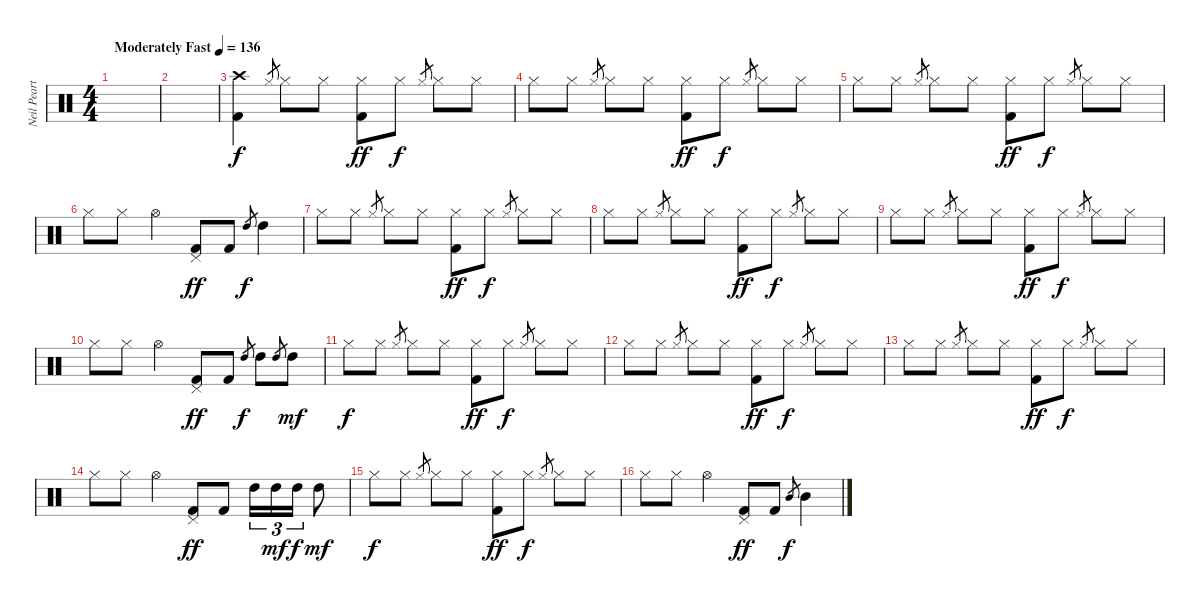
\track ("Neil Peart" "Neil Peart") {instrument percussion}
\staff {score}
\articulation defaults
\ts (4 4)
\tempo (136 "Moderately Fast")
\clef neutral
\ks c
|
|
("Crash high (hit)" "Kick (hit) 2").4 "Hi-Hat (closed)".8{gr dy f} "Hi-Hat (closed)".8 "Hi-Hat (closed)".8 ("Hi-Hat (closed)" "Kick (hit) 2").8{dy ff} "Hi-Hat (closed)".8{dy f} "Hi-Hat (closed)".8{gr} "Hi-Hat (closed)".8 "Hi-Hat (closed)".8 |
"Hi-Hat (closed)".8 "Hi-Hat (closed)".8 "Hi-Hat (closed)".8{gr} "Hi-Hat (closed)".8 "Hi-Hat (closed)".8 ("Hi-Hat (closed)" "Kick (hit) 2").8{dy ff} "Hi-Hat (closed)".8{dy f} "Hi-Hat (closed)".8{gr} "Hi-Hat (closed)".8 "Hi-Hat (closed)".8 |
"Hi-Hat (closed)".8 "Hi-Hat (closed)".8 "Hi-Hat (closed)".8{gr} "Hi-Hat (closed)".8 "Hi-Hat (closed)".8 ("Hi-Hat (closed)" "Kick (hit) 2").8{dy ff} "Hi-Hat (closed)".8{dy f} "Hi-Hat (closed)".8{gr} "Hi-Hat (closed)".8 "Hi-Hat (closed)".8 |
"Hi-Hat (closed)".8 "Hi-Hat (closed)".8 "Hi-Hat (open)".4 ("Pedal Hi-Hat (hit)" "Kick (hit) 2").8{dy ff} "Kick (hit) 2".8 "High Tom (hit)".8{gr dy f} "High Tom (hit)".4 |
"Hi-Hat (closed)".8 "Hi-Hat (closed)".8 "Hi-Hat (closed)".8{gr} "Hi-Hat (closed)".8 "Hi-Hat (closed)".8 ("Hi-Hat (closed)" "Kick (hit) 2").8{dy ff} "Hi-Hat (closed)".8{dy f} "Hi-Hat (closed)".8{gr} "Hi-Hat (closed)".8 "Hi-Hat (closed)".8 |
"Hi-Hat (closed)".8 "Hi-Hat (closed)".8 "Hi-Hat (closed)".8{gr} "Hi-Hat (closed)".8 "Hi-Hat (closed)".8 ("Hi-Hat (closed)" "Kick (hit) 2").8{dy ff} "Hi-Hat (closed)".8{dy f} "Hi-Hat (closed)".8{gr} "Hi-Hat (closed)".8 "Hi-Hat (closed)".8 |
"Hi-Hat (closed)".8 "Hi-Hat (closed)".8 "Hi-Hat (closed)".8{gr} "Hi-Hat (closed)".8 "Hi-Hat (closed)".8 ("Hi-Hat (closed)" "Kick (hit) 2").8{dy ff} "Hi-Hat (closed)".8{dy f} "Hi-Hat (closed)".8{gr} "Hi-Hat (closed)".8 "Hi-Hat (closed)".8 |
"Hi-Hat (closed)".8 "Hi-Hat (closed)".8 "Hi-Hat (open)".4 ("Pedal Hi-Hat (hit)" "Kick (hit) 2").8{dy ff} "Kick (hit) 2".8 "High Tom (hit)".8{gr dy f} "High Tom (hit)".8 "High Tom (hit)".8{gr} "High Tom (hit)".8{dy mf} |
"Hi-Hat (closed)".8{dy f} "Hi-Hat (closed)".8 "Hi-Hat (closed)".8{gr} "Hi-Hat (closed)".8 "Hi-Hat (closed)".8 ("Hi-Hat (closed)" "Kick (hit) 2").8{dy ff} "Hi-Hat (closed)".8{dy f} "Hi-Hat (closed)".8{gr} "Hi-Hat (closed)".8 "Hi-Hat (closed)".8 |
"Hi-Hat (closed)".8 "Hi-Hat (closed)".8 "Hi-Hat (closed)".8{gr} "Hi-Hat (closed)".8 "Hi-Hat (closed)".8 ("Hi-Hat (closed)" "Kick (hit) 2").8{dy ff} "Hi-Hat (closed)".8{dy f} "Hi-Hat (closed)".8{gr} "Hi-Hat (closed)".8 "Hi-Hat (closed)".8 |
"Hi-Hat (closed)".8 "Hi-Hat (closed)".8 "Hi-Hat (closed)".8{gr} "Hi-Hat (closed)".8 "Hi-Hat (closed)".8 ("Hi-Hat (closed)" "Kick (hit) 2").8{dy ff} "Hi-Hat (closed)".8{dy f} "Hi-Hat (closed)".8{gr} "Hi-Hat (closed)".8 "Hi-Hat (closed)".8 |
"Hi-Hat (closed)".8 "Hi-Hat (closed)".8 "Hi-Hat (open)".4 ("Pedal Hi-Hat (hit)" "Kick (hit) 2").8{dy ff} "Kick (hit) 2".8 "High Tom (hit)".16{tu (3 2)} "High Tom (hit)".16{tu (3 2) dy mf} "High Tom (hit)".16{tu (3 2) dy f} "High Tom (hit)".8{dy mf} |
"Hi-Hat (closed)".8{dy f} "Hi-Hat (closed)".8 "Hi-Hat (closed)".8{gr} "Hi-Hat (closed)".8 "Hi-Hat (closed)".8 ("Hi-Hat (closed)" "Kick (hit) 2").8{dy ff} "Hi-Hat (closed)".8{dy f} "Hi-Hat (closed)".8{gr} "Hi-Hat (closed)".8 "Hi-Hat (closed)".8 |
"Hi-Hat (closed)".8 "Hi-Hat (closed)".8 "Hi-Hat (open)".4 ("Pedal Hi-Hat (hit)" "Kick (hit) 2").8{dy ff} "Kick (hit) 2".8 "Mid Tom (hit)".8{gr dy f} "Mid Tom (hit)".4
